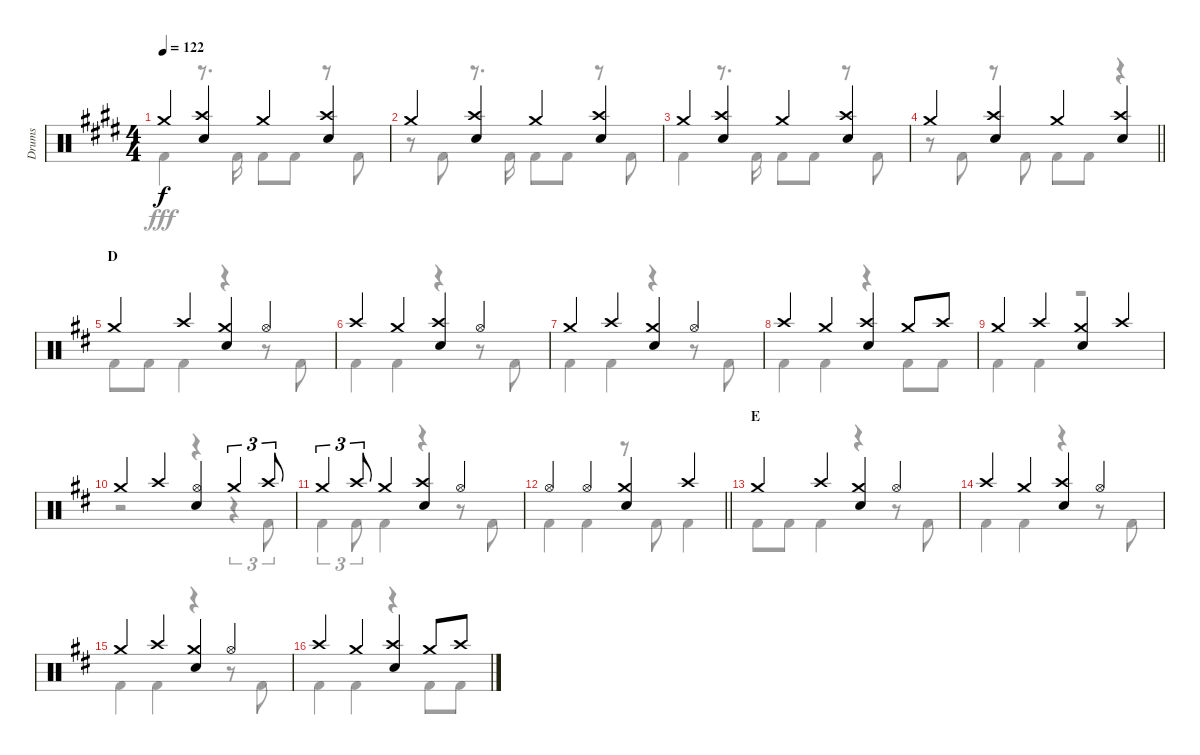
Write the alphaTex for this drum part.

\track ("Drums" "Drums") {instrument percussion}
\staff {score}
\articulation defaults
\voice
\ts (4 4)
\tempo 122
\clef neutral
\ks e "Crash medium (hit)".4{dy f}
("Crash high (hit)" "Snare (hit) 2").4 "Crash medium (hit)".4 ("Crash high (hit)" "Snare (hit) 2").4 |
"Crash medium (hit)".4 ("Crash high (hit)" "Snare (hit) 2").4 "Crash medium (hit)".4 ("Crash high (hit)" "Snare (hit) 2").4 |
"Crash medium (hit)".4 ("Crash high (hit)" "Snare (hit) 2").4 "Crash medium (hit)".4 ("Crash high (hit)" "Snare (hit) 2").4 |
\barLineRight lightlight "Crash medium (hit)".4
("Crash high (hit)" "Snare (hit) 2").4 "Crash medium (hit)".4 ("Crash high (hit)" "Snare (hit) 2").4 |
\section ("" "D")
\ks d "Crash medium (hit)".4 "Crash high (hit)".4
("Crash medium (hit)" "Snare (hit) 2").4 "Hi-Hat (open)".4 |
"Crash high (hit)".4 "Crash medium (hit)".4 ("Crash high (hit)" "Snare (hit) 2").4 "Hi-Hat (open)".4 |
"Crash medium (hit)".4 "Crash high (hit)".4 ("Crash medium (hit)" "Snare (hit) 2").4 "Hi-Hat (open)".4 |
"Crash high (hit)".4 "Crash medium (hit)".4 ("Crash high (hit)" "Snare (hit) 2").4 "Crash medium (hit)".8 "Crash high (hit)".8 |
"Crash medium (hit)".4 "Crash high (hit)".4 ("Crash medium (hit)" "Snare (hit) 2").4 "Crash high (hit)".4 |
"Crash medium (hit)".4 "Crash high (hit)".4 ("Hi-Hat (open)" "Snare (hit) 2").4 "Crash medium (hit)".4{tu (3 2)} "Crash high (hit)".8{tu (3 2)} |
"Crash medium (hit)".4{tu (3 2)} "Crash high (hit)".8{tu (3 2)} "Crash medium (hit)".4 ("Crash high (hit)" "Snare (hit) 2").4 "Hi-Hat (open)".4 |
\barLineRight lightlight "Hi-Hat (open)".4 "Hi-Hat (open)".4
("Crash medium (hit)" "Snare (hit) 2").4 "Crash high (hit)".4 |
\section ("" "E")
"Crash medium (hit)".4 "Crash high (hit)".4 ("Crash medium (hit)" "Snare (hit) 2").4 "Hi-Hat (open)".4 |
"Crash high (hit)".4 "Crash medium (hit)".4 ("Crash high (hit)" "Snare (hit) 2").4 "Hi-Hat (open)".4 |
"Crash medium (hit)".4 "Crash high (hit)".4 ("Crash medium (hit)" "Snare (hit) 2").4 "Hi-Hat (open)".4 |
"Crash high (hit)".4 "Crash medium (hit)".4 ("Crash high (hit)" "Snare (hit) 2").4 "Crash medium (hit)".8 "Crash high (hit)".8
\voice
\clef neutral
\ottava regular
\simile none
\ks e "Kick (hit) 2".4{dy fff}
r.8{d} "Kick (hit) 2".16 "Kick (hit) 2".8 "Kick (hit) 2".8 r.8 "Kick (hit) 2".8 |
r.8 "Kick (hit) 2".8 r.8{d} "Kick (hit) 2".16 "Kick (hit) 2".8 "Kick (hit) 2".8 r.8 "Kick (hit) 2".8 |
"Kick (hit) 2".4 r.8{d} "Kick (hit) 2".16 "Kick (hit) 2".8 "Kick (hit) 2".8 r.8 "Kick (hit) 2".8 |
\barLineRight lightlight
r.8 "Kick (hit) 2".8 r.8 "Kick (hit) 2".8 "Kick (hit) 2".8 "Kick (hit) 2".8 r.4 |
\ks d "Kick (hit) 2".8 "Kick (hit) 2".8 "Kick (hit) 2".4
r.4 r.8 "Kick (hit) 2".8 |
"Kick (hit) 2".4 "Kick (hit) 2".4 r.4 r.8 "Kick (hit) 2".8 |
"Kick (hit) 2".4 "Kick (hit) 2".4 r.4 r.8 "Kick (hit) 2".8 |
"Kick (hit) 2".4 "Kick (hit) 2".4 r.4 "Kick (hit) 2".8 "Kick (hit) 2".8 |
"Kick (hit) 2".4 "Kick (hit) 2".4 r.2 |
r.2 r.4 r.4{tu (3 2)} "Kick (hit) 2".8{tu (3 2)} |
"Kick (hit) 2".4{tu (3 2)} "Kick (hit) 2".8{tu (3 2)} "Kick (hit) 2".4 r.4 r.8 "Kick (hit) 2".8 |
\barLineRight lightlight "Kick (hit) 2".4 "Kick (hit) 2".4
r.8 "Kick (hit) 2".8 "Kick (hit) 2".4 |
"Kick (hit) 2".8 "Kick (hit) 2".8 "Kick (hit) 2".4 r.4 r.8 "Kick (hit) 2".8 |
"Kick (hit) 2".4 "Kick (hit) 2".4 r.4 r.8 "Kick (hit) 2".8 |
"Kick (hit) 2".4 "Kick (hit) 2".4 r.4 r.8 "Kick (hit) 2".8 |
"Kick (hit) 2".4 "Kick (hit) 2".4 r.4 "Kick (hit) 2".8 "Kick (hit) 2".8
